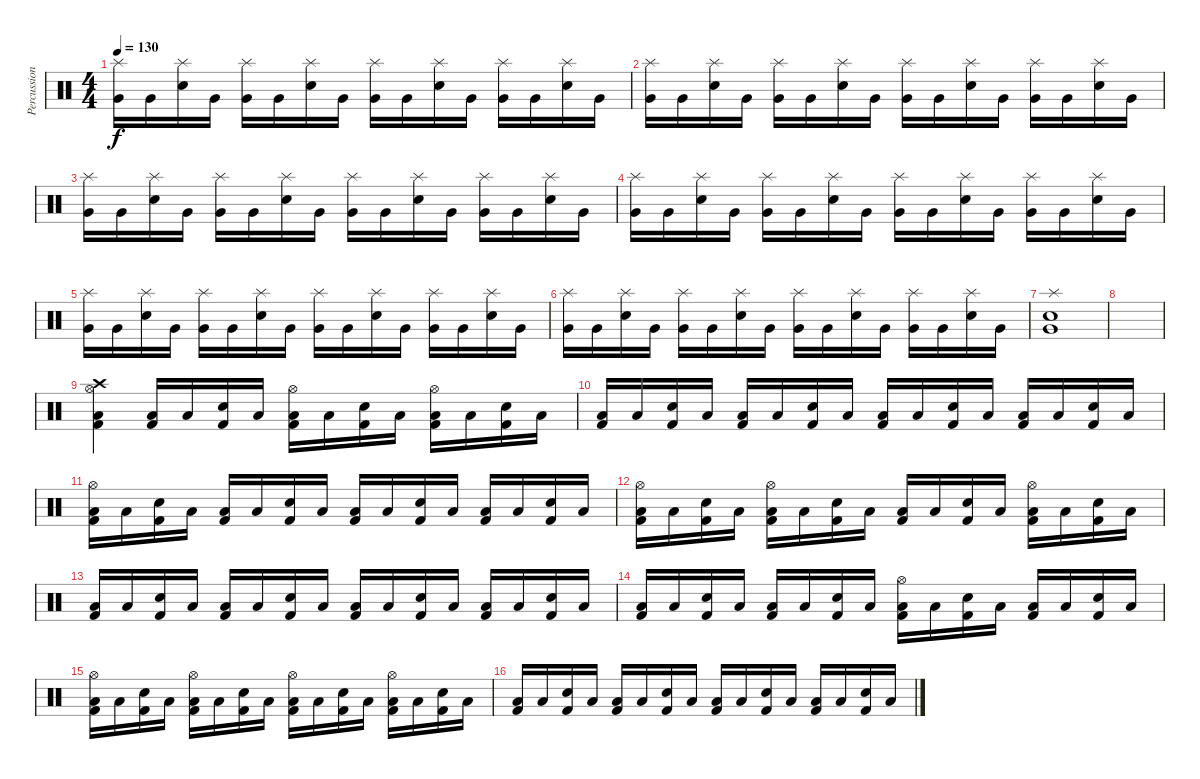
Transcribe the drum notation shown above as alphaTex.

\track ("Percussion" "Percussion") {instrument percussion}
\staff {score}
\articulation defaults
\ts (4 4)
\tempo 130
\clef neutral
\ks c
("Very Low Tom (hit)" "Splash (hit)").16{dy f} "Very Low Tom (hit)".16 ("Snare (hit) 2" "Splash (hit)").16 "Very Low Tom (hit)".16 ("Very Low Tom (hit)" "Splash (hit)").16 "Very Low Tom (hit)".16 ("Snare (hit) 2" "Splash (hit)").16 "Very Low Tom (hit)".16 ("Very Low Tom (hit)" "Splash (hit)").16 "Very Low Tom (hit)".16 ("Snare (hit) 2" "Splash (hit)").16 "Very Low Tom (hit)".16 ("Very Low Tom (hit)" "Splash (hit)").16 "Very Low Tom (hit)".16 ("Snare (hit) 2" "Splash (hit)").16 "Very Low Tom (hit)".16 |
("Very Low Tom (hit)" "Splash (hit)").16 "Very Low Tom (hit)".16 ("Snare (hit) 2" "Splash (hit)").16 "Very Low Tom (hit)".16 ("Very Low Tom (hit)" "Splash (hit)").16 "Very Low Tom (hit)".16 ("Snare (hit) 2" "Splash (hit)").16 "Very Low Tom (hit)".16 ("Very Low Tom (hit)" "Splash (hit)").16 "Very Low Tom (hit)".16 ("Snare (hit) 2" "Splash (hit)").16 "Very Low Tom (hit)".16 ("Very Low Tom (hit)" "Splash (hit)").16 "Very Low Tom (hit)".16 ("Snare (hit) 2" "Splash (hit)").16 "Very Low Tom (hit)".16 |
("Very Low Tom (hit)" "Splash (hit)").16 "Very Low Tom (hit)".16 ("Snare (hit) 2" "Splash (hit)").16 "Very Low Tom (hit)".16 ("Very Low Tom (hit)" "Splash (hit)").16 "Very Low Tom (hit)".16 ("Snare (hit) 2" "Splash (hit)").16 "Very Low Tom (hit)".16 ("Very Low Tom (hit)" "Splash (hit)").16 "Very Low Tom (hit)".16 ("Snare (hit) 2" "Splash (hit)").16 "Very Low Tom (hit)".16 ("Very Low Tom (hit)" "Splash (hit)").16 "Very Low Tom (hit)".16 ("Snare (hit) 2" "Splash (hit)").16 "Very Low Tom (hit)".16 |
("Very Low Tom (hit)" "Splash (hit)").16 "Very Low Tom (hit)".16 ("Snare (hit) 2" "Splash (hit)").16 "Very Low Tom (hit)".16 ("Very Low Tom (hit)" "Splash (hit)").16 "Very Low Tom (hit)".16 ("Snare (hit) 2" "Splash (hit)").16 "Very Low Tom (hit)".16 ("Very Low Tom (hit)" "Splash (hit)").16 "Very Low Tom (hit)".16 ("Snare (hit) 2" "Splash (hit)").16 "Very Low Tom (hit)".16 ("Very Low Tom (hit)" "Splash (hit)").16 "Very Low Tom (hit)".16 ("Snare (hit) 2" "Splash (hit)").16 "Very Low Tom (hit)".16 |
("Very Low Tom (hit)" "Splash (hit)").16 "Very Low Tom (hit)".16 ("Snare (hit) 2" "Splash (hit)").16 "Very Low Tom (hit)".16 ("Very Low Tom (hit)" "Splash (hit)").16 "Very Low Tom (hit)".16 ("Snare (hit) 2" "Splash (hit)").16 "Very Low Tom (hit)".16 ("Very Low Tom (hit)" "Splash (hit)").16 "Very Low Tom (hit)".16 ("Snare (hit) 2" "Splash (hit)").16 "Very Low Tom (hit)".16 ("Very Low Tom (hit)" "Splash (hit)").16 "Very Low Tom (hit)".16 ("Snare (hit) 2" "Splash (hit)").16 "Very Low Tom (hit)".16 |
("Very Low Tom (hit)" "Splash (hit)").16 "Very Low Tom (hit)".16 ("Snare (hit) 2" "Splash (hit)").16 "Very Low Tom (hit)".16 ("Very Low Tom (hit)" "Splash (hit)").16 "Very Low Tom (hit)".16 ("Snare (hit) 2" "Splash (hit)").16 "Very Low Tom (hit)".16 ("Very Low Tom (hit)" "Splash (hit)").16 "Very Low Tom (hit)".16 ("Snare (hit) 2" "Splash (hit)").16 "Very Low Tom (hit)".16 ("Very Low Tom (hit)" "Splash (hit)").16 "Very Low Tom (hit)".16 ("Snare (hit) 2" "Splash (hit)").16 "Very Low Tom (hit)".16 |
("Snare (hit) 2" "Very Low Tom (hit)" "Splash (hit)").1 |
|
("Kick (hit) 2" "Low Tom (hit)" "Hi-Hat (open)" "Crash high (hit)").4 ("Low Tom (hit)" "Kick (hit) 2").16 "Low Tom (hit)".16 ("Snare (hit) 2" "Kick (hit) 2").16 "Low Tom (hit)".16 ("Low Tom (hit)" "Kick (hit) 2" "Hi-Hat (open)").16 "Low Tom (hit)".16 ("Snare (hit) 2" "Kick (hit) 2").16 "Low Tom (hit)".16 ("Low Tom (hit)" "Kick (hit) 2" "Hi-Hat (open)").16 "Low Tom (hit)".16 ("Snare (hit) 2" "Kick (hit) 2").16 "Low Tom (hit)".16 |
("Low Tom (hit)" "Kick (hit) 2").16 "Low Tom (hit)".16 ("Snare (hit) 2" "Kick (hit) 2").16 "Low Tom (hit)".16 ("Low Tom (hit)" "Kick (hit) 2").16 "Low Tom (hit)".16 ("Snare (hit) 2" "Kick (hit) 2").16 "Low Tom (hit)".16 ("Low Tom (hit)" "Kick (hit) 2").16 "Low Tom (hit)".16 ("Snare (hit) 2" "Kick (hit) 2").16 "Low Tom (hit)".16 ("Low Tom (hit)" "Kick (hit) 2").16 "Low Tom (hit)".16 ("Snare (hit) 2" "Kick (hit) 2").16 "Low Tom (hit)".16 |
("Low Tom (hit)" "Kick (hit) 2" "Hi-Hat (open)").16 "Low Tom (hit)".16 ("Snare (hit) 2" "Kick (hit) 2").16 "Low Tom (hit)".16 ("Low Tom (hit)" "Kick (hit) 2").16 "Low Tom (hit)".16 ("Snare (hit) 2" "Kick (hit) 2").16 "Low Tom (hit)".16 ("Low Tom (hit)" "Kick (hit) 2").16 "Low Tom (hit)".16 ("Snare (hit) 2" "Kick (hit) 2").16 "Low Tom (hit)".16 ("Low Tom (hit)" "Kick (hit) 2").16 "Low Tom (hit)".16 ("Snare (hit) 2" "Kick (hit) 2").16 "Low Tom (hit)".16 |
("Low Tom (hit)" "Kick (hit) 2" "Hi-Hat (open)").16 "Low Tom (hit)".16 ("Snare (hit) 2" "Kick (hit) 2").16 "Low Tom (hit)".16 ("Low Tom (hit)" "Kick (hit) 2" "Hi-Hat (open)").16 "Low Tom (hit)".16 ("Snare (hit) 2" "Kick (hit) 2").16 "Low Tom (hit)".16 ("Low Tom (hit)" "Kick (hit) 2").16 "Low Tom (hit)".16 ("Snare (hit) 2" "Kick (hit) 2").16 "Low Tom (hit)".16 ("Low Tom (hit)" "Kick (hit) 2" "Hi-Hat (open)").16 "Low Tom (hit)".16 ("Snare (hit) 2" "Kick (hit) 2").16 "Low Tom (hit)".16 |
("Low Tom (hit)" "Kick (hit) 2").16 "Low Tom (hit)".16 ("Snare (hit) 2" "Kick (hit) 2").16 "Low Tom (hit)".16 ("Low Tom (hit)" "Kick (hit) 2").16 "Low Tom (hit)".16 ("Snare (hit) 2" "Kick (hit) 2").16 "Low Tom (hit)".16 ("Low Tom (hit)" "Kick (hit) 2").16 "Low Tom (hit)".16 ("Snare (hit) 2" "Kick (hit) 2").16 "Low Tom (hit)".16 ("Low Tom (hit)" "Kick (hit) 2").16 "Low Tom (hit)".16 ("Snare (hit) 2" "Kick (hit) 2").16 "Low Tom (hit)".16 |
("Low Tom (hit)" "Kick (hit) 2").16 "Low Tom (hit)".16 ("Snare (hit) 2" "Kick (hit) 2").16 "Low Tom (hit)".16 ("Low Tom (hit)" "Kick (hit) 2").16 "Low Tom (hit)".16 ("Snare (hit) 2" "Kick (hit) 2").16 "Low Tom (hit)".16 ("Low Tom (hit)" "Kick (hit) 2" "Hi-Hat (open)").16 "Low Tom (hit)".16 ("Snare (hit) 2" "Kick (hit) 2").16 "Low Tom (hit)".16 ("Low Tom (hit)" "Kick (hit) 2").16 "Low Tom (hit)".16 ("Snare (hit) 2" "Kick (hit) 2").16 "Low Tom (hit)".16 |
("Low Tom (hit)" "Kick (hit) 2" "Hi-Hat (open)").16 "Low Tom (hit)".16 ("Snare (hit) 2" "Kick (hit) 2").16 "Low Tom (hit)".16 ("Low Tom (hit)" "Kick (hit) 2" "Hi-Hat (open)").16 "Low Tom (hit)".16 ("Snare (hit) 2" "Kick (hit) 2").16 "Low Tom (hit)".16 ("Low Tom (hit)" "Kick (hit) 2" "Hi-Hat (open)").16 "Low Tom (hit)".16 ("Snare (hit) 2" "Kick (hit) 2").16 "Low Tom (hit)".16 ("Low Tom (hit)" "Kick (hit) 2" "Hi-Hat (open)").16 "Low Tom (hit)".16 ("Snare (hit) 2" "Kick (hit) 2").16 "Low Tom (hit)".16 |
("Low Tom (hit)" "Kick (hit) 2").16 "Low Tom (hit)".16 ("Snare (hit) 2" "Kick (hit) 2").16 "Low Tom (hit)".16 ("Low Tom (hit)" "Kick (hit) 2").16 "Low Tom (hit)".16 ("Snare (hit) 2" "Kick (hit) 2").16 "Low Tom (hit)".16 ("Low Tom (hit)" "Kick (hit) 2").16 "Low Tom (hit)".16 ("Snare (hit) 2" "Kick (hit) 2").16 "Low Tom (hit)".16 ("Low Tom (hit)" "Kick (hit) 2").16 "Low Tom (hit)".16 ("Snare (hit) 2" "Kick (hit) 2").16 "Low Tom (hit)".16
